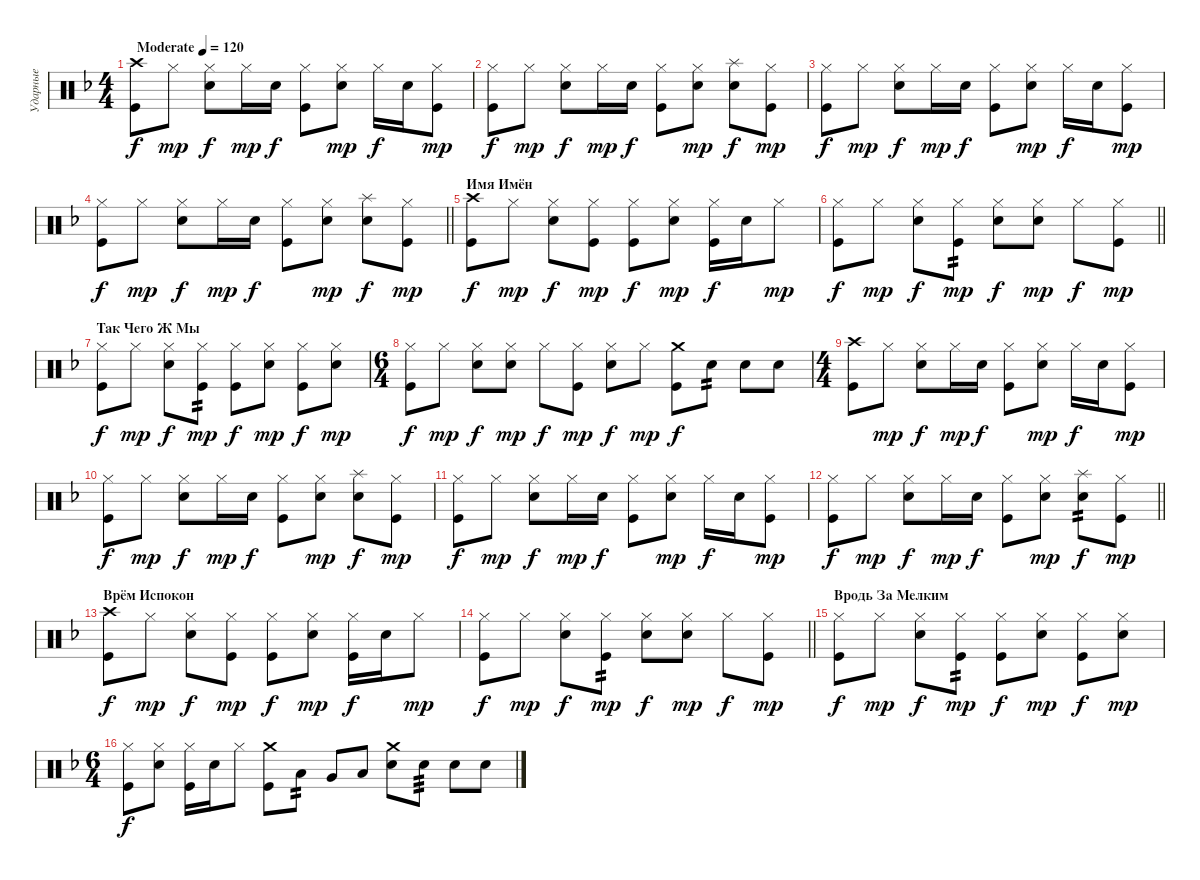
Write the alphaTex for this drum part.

\track ("Ударные" "Ударные") {instrument percussion}
\staff {score}
\articulation defaults
\ts (4 4)
\tempo (120 "Moderate")
\clef neutral
\ks dminor
("Crash high (hit)" "Kick (hit)").8{dy f} "Hi-Hat (closed)".8{dy mp} ("Hi-Hat (closed)" "Snare (hit) 2").8{dy f} "Hi-Hat (closed)".16{dy mp} "Snare (hit) 2".16{dy f} ("Hi-Hat (closed)" "Kick (hit)").8 ("Hi-Hat (closed)" "Snare (hit) 2").8{dy mp} "Hi-Hat (closed)".16{dy f} "Snare (hit) 2".16 ("Hi-Hat (closed)" "Kick (hit)").8{dy mp} |
("Hi-Hat (closed)" "Kick (hit)").8{dy f} "Hi-Hat (closed)".8{dy mp} ("Hi-Hat (closed)" "Snare (hit) 2").8{dy f} "Hi-Hat (closed)".16{dy mp} "Snare (hit) 2".16{dy f} ("Hi-Hat (closed)" "Kick (hit)").8 ("Hi-Hat (closed)" "Snare (hit) 2").8{dy mp} ("Splash (hit)" "Snare (hit) 2").8{dy f} ("Hi-Hat (closed)" "Kick (hit)").8{dy mp} |
("Hi-Hat (closed)" "Kick (hit)").8{dy f} "Hi-Hat (closed)".8{dy mp} ("Hi-Hat (closed)" "Snare (hit) 2").8{dy f} "Hi-Hat (closed)".16{dy mp} "Snare (hit) 2".16{dy f} ("Hi-Hat (closed)" "Kick (hit)").8 ("Hi-Hat (closed)" "Snare (hit) 2").8{dy mp} "Hi-Hat (closed)".16{dy f} "Snare (hit) 2".16 ("Hi-Hat (closed)" "Kick (hit)").8{dy mp} |
\barLineRight lightlight
("Hi-Hat (closed)" "Kick (hit)").8{dy f} "Hi-Hat (closed)".8{dy mp} ("Hi-Hat (closed)" "Snare (hit) 2").8{dy f} "Hi-Hat (closed)".16{dy mp} "Snare (hit) 2".16{dy f} ("Hi-Hat (closed)" "Kick (hit)").8 ("Hi-Hat (closed)" "Snare (hit) 2").8{dy mp} ("Splash (hit)" "Snare (hit) 2").8{dy f} ("Hi-Hat (closed)" "Kick (hit)").8{dy mp} |
\section ("" "Имя Имён")
("Crash high (hit)" "Kick (hit)").8{dy f} "Hi-Hat (closed)".8{dy mp} ("Hi-Hat (closed)" "Snare (hit) 2").8{dy f} ("Hi-Hat (closed)" "Kick (hit)").8{dy mp} ("Hi-Hat (closed)" "Kick (hit)").8{dy f} ("Hi-Hat (closed)" "Snare (hit) 2").8{dy mp} ("Hi-Hat (closed)" "Kick (hit)").16{dy f} "Snare (hit) 2".16 "Hi-Hat (closed)".8{dy mp} |
\barLineRight lightlight
("Hi-Hat (closed)" "Kick (hit)").8{dy f} "Hi-Hat (closed)".8{dy mp} ("Hi-Hat (closed)" "Snare (hit) 2").8{dy f} ("Hi-Hat (closed)" "Kick (hit)").8{tp 2 dy mp} ("Hi-Hat (closed)" "Snare (hit) 2").8{dy f} ("Hi-Hat (closed)" "Snare (hit) 2").8{dy mp} "Hi-Hat (closed)".8{dy f} ("Hi-Hat (closed)" "Kick (hit)").8{dy mp} |
\section ("" "Так Чего Ж Мы")
("Hi-Hat (closed)" "Kick (hit)").8{dy f} "Hi-Hat (closed)".8{dy mp} ("Hi-Hat (closed)" "Snare (hit) 2").8{dy f} ("Hi-Hat (closed)" "Kick (hit)").8{tp 2 dy mp} ("Hi-Hat (closed)" "Kick (hit)").8{dy f} ("Hi-Hat (closed)" "Snare (hit) 2").8{dy mp} ("Hi-Hat (closed)" "Kick (hit)").8{dy f} ("Hi-Hat (closed)" "Snare (hit) 2").8{dy mp} |
\ts (6 4)
("Hi-Hat (closed)" "Kick (hit)").8{dy f} "Hi-Hat (closed)".8{dy mp} ("Hi-Hat (closed)" "Snare (hit) 2").8{dy f} ("Hi-Hat (closed)" "Snare (hit) 2").8{dy mp} "Hi-Hat (closed)".8{dy f} ("Hi-Hat (closed)" "Kick (hit)").8{dy mp} ("Hi-Hat (closed)" "Snare (hit) 2").8{dy f} "Hi-Hat (closed)".8{dy mp} ("Crash medium (hit)" "Kick (hit)").8{dy f} "Snare (hit) 2".8{tp 2} "Snare (hit) 2".8 "Snare (hit) 2".8 |
\ts (4 4)
("Crash high (hit)" "Kick (hit)").8 "Hi-Hat (closed)".8{dy mp} ("Hi-Hat (closed)" "Snare (hit) 2").8{dy f} "Hi-Hat (closed)".16{dy mp} "Snare (hit) 2".16{dy f} ("Hi-Hat (closed)" "Kick (hit)").8 ("Hi-Hat (closed)" "Snare (hit) 2").8{dy mp} "Hi-Hat (closed)".16{dy f} "Snare (hit) 2".16 ("Hi-Hat (closed)" "Kick (hit)").8{dy mp} |
("Hi-Hat (closed)" "Kick (hit)").8{dy f} "Hi-Hat (closed)".8{dy mp} ("Hi-Hat (closed)" "Snare (hit) 2").8{dy f} "Hi-Hat (closed)".16{dy mp} "Snare (hit) 2".16{dy f} ("Hi-Hat (closed)" "Kick (hit)").8 ("Hi-Hat (closed)" "Snare (hit) 2").8{dy mp} ("Splash (hit)" "Snare (hit) 2").8{dy f} ("Hi-Hat (closed)" "Kick (hit)").8{dy mp} |
("Hi-Hat (closed)" "Kick (hit)").8{dy f} "Hi-Hat (closed)".8{dy mp} ("Hi-Hat (closed)" "Snare (hit) 2").8{dy f} "Hi-Hat (closed)".16{dy mp} "Snare (hit) 2".16{dy f} ("Hi-Hat (closed)" "Kick (hit)").8 ("Hi-Hat (closed)" "Snare (hit) 2").8{dy mp} "Hi-Hat (closed)".16{dy f} "Snare (hit) 2".16 ("Hi-Hat (closed)" "Kick (hit)").8{dy mp} |
\barLineRight lightlight
("Hi-Hat (closed)" "Kick (hit)").8{dy f} "Hi-Hat (closed)".8{dy mp} ("Hi-Hat (closed)" "Snare (hit) 2").8{dy f} "Hi-Hat (closed)".16{dy mp} "Snare (hit) 2".16{dy f} ("Hi-Hat (closed)" "Kick (hit)").8 ("Hi-Hat (closed)" "Snare (hit) 2").8{dy mp} ("Splash (hit)" "Snare (hit) 2").8{tp 2 dy f} ("Hi-Hat (closed)" "Kick (hit)").8{dy mp} |
\section ("" "Врём Испокон")
("Crash high (hit)" "Kick (hit)").8{dy f} "Hi-Hat (closed)".8{dy mp} ("Hi-Hat (closed)" "Snare (hit) 2").8{dy f} ("Hi-Hat (closed)" "Kick (hit)").8{dy mp} ("Hi-Hat (closed)" "Kick (hit)").8{dy f} ("Hi-Hat (closed)" "Snare (hit) 2").8{dy mp} ("Hi-Hat (closed)" "Kick (hit)").16{dy f} "Snare (hit) 2".16 "Hi-Hat (closed)".8{dy mp} |
\barLineRight lightlight
("Hi-Hat (closed)" "Kick (hit)").8{dy f} "Hi-Hat (closed)".8{dy mp} ("Hi-Hat (closed)" "Snare (hit) 2").8{dy f} ("Hi-Hat (closed)" "Kick (hit)").8{tp 2 dy mp} ("Hi-Hat (closed)" "Snare (hit) 2").8{dy f} ("Hi-Hat (closed)" "Snare (hit) 2").8{dy mp} "Hi-Hat (closed)".8{dy f} ("Hi-Hat (closed)" "Kick (hit)").8{dy mp} |
\section ("" "Вродь За Мелким")
("Hi-Hat (closed)" "Kick (hit)").8{dy f} "Hi-Hat (closed)".8{dy mp} ("Hi-Hat (closed)" "Snare (hit) 2").8{dy f} ("Hi-Hat (closed)" "Kick (hit)").8{tp 2 dy mp} ("Hi-Hat (closed)" "Kick (hit)").8{dy f} ("Hi-Hat (closed)" "Snare (hit) 2").8{dy mp} ("Hi-Hat (closed)" "Kick (hit)").8{dy f} ("Hi-Hat (closed)" "Snare (hit) 2").8{dy mp} |
\ts (6 4)
("Hi-Hat (closed)" "Kick (hit)").8{dy f} ("Hi-Hat (closed)" "Snare (hit) 2").8 ("Hi-Hat (closed)" "Kick (hit)").16 "Snare (hit) 2".16 "Hi-Hat (closed)".8 ("Crash medium (hit)" "Kick (hit)").8 "Low Tom (hit)".8{tp 2} "Very Low Tom (hit)".8 "Low Floor Tom (hit)".8 ("Crash medium (hit)" "Snare (hit) 2").8 "Snare (hit) 2".8{tp 3} "Snare (hit) 2".8 "Snare (hit) 2".8
